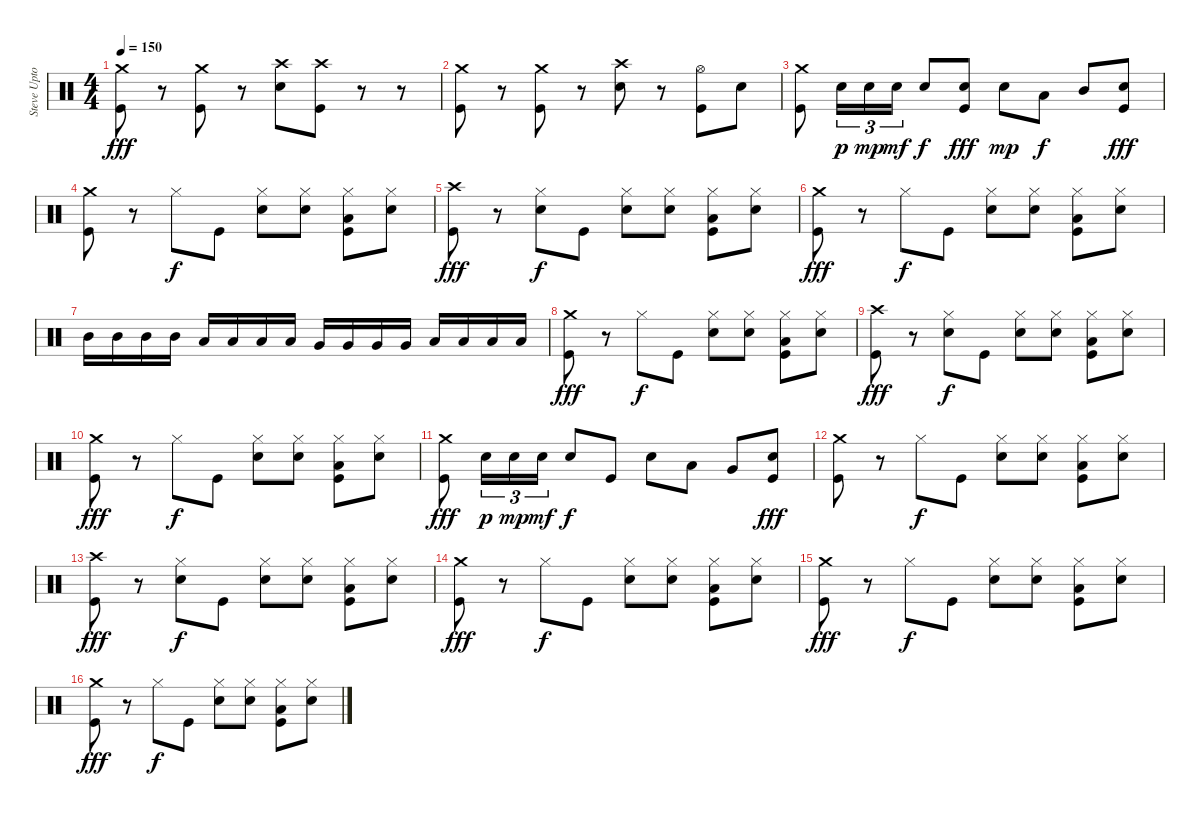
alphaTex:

\track ("Steve Upton (drums)" "Steve Upto") {instrument percussion}
\staff {score}
\articulation defaults
\ts (4 4)
\tempo 150
\clef neutral
\ks c
("Crash medium (hit)" "Kick (hit)").8{dy fff} r.8 ("Crash medium (hit)" "Kick (hit)").8 r.8 ("Crash high (hit)" "Electric Snare (hit)").8 ("Crash high (hit)" "Kick (hit)").8 r.8 r.8 |
("Crash medium (hit)" "Kick (hit)").8 r.8 ("Crash medium (hit)" "Kick (hit)").8 r.8 ("Crash high (hit)" "Electric Snare (hit)").8 r.8 ("Hi-Hat (open)" "Kick (hit)").8 "Electric Snare (hit)".8 |
("Crash medium (hit)" "Kick (hit)").8 "Electric Snare (hit)".16{tu (3 2) dy p} "Electric Snare (hit)".16{tu (3 2) dy mp} "Electric Snare (hit)".16{tu (3 2) dy mf} "Electric Snare (hit)".8{dy f} ("Electric Snare (hit)" "Kick (hit)").8{dy fff} "Electric Snare (hit)".8{dy mp} "Low Tom (hit)".8{dy f} "Mid Tom (hit)".8 ("Electric Snare (hit)" "Kick (hit)").8{dy fff} |
("Crash medium (hit)" "Kick (hit)").8 r.8 "Hi-Hat (closed)".8{dy f} "Kick (hit)".8 ("Hi-Hat (closed)" "Electric Snare (hit)").8 ("Hi-Hat (closed)" "Electric Snare (hit)").8 ("Hi-Hat (closed)" "Low Tom (hit)" "Kick (hit)").8 ("Hi-Hat (closed)" "Electric Snare (hit)").8 |
("Crash high (hit)" "Kick (hit)").8{dy fff} r.8 ("Hi-Hat (closed)" "Electric Snare (hit)").8{dy f} "Kick (hit)".8 ("Hi-Hat (closed)" "Electric Snare (hit)").8 ("Hi-Hat (closed)" "Electric Snare (hit)").8 ("Hi-Hat (closed)" "Low Tom (hit)" "Kick (hit)").8 ("Hi-Hat (closed)" "Electric Snare (hit)").8 |
("Crash medium (hit)" "Kick (hit)").8{dy fff} r.8 "Hi-Hat (closed)".8{dy f} "Kick (hit)".8 ("Hi-Hat (closed)" "Electric Snare (hit)").8 ("Hi-Hat (closed)" "Electric Snare (hit)").8 ("Hi-Hat (closed)" "Low Tom (hit)" "Kick (hit)").8 ("Hi-Hat (closed)" "Electric Snare (hit)").8 |
"Mid Tom (hit)".16 "Mid Tom (hit)".16 "Mid Tom (hit)".16 "Mid Tom (hit)".16 "Low Tom (hit)".16 "Low Tom (hit)".16 "Low Tom (hit)".16 "Low Tom (hit)".16 "Very Low Tom (hit)".16 "Very Low Tom (hit)".16 "Very Low Tom (hit)".16 "Very Low Tom (hit)".16 "Low Floor Tom (hit)".16 "Low Floor Tom (hit)".16 "Low Floor Tom (hit)".16 "Low Floor Tom (hit)".16 |
("Crash medium (hit)" "Kick (hit)").8{dy fff} r.8 "Hi-Hat (closed)".8{dy f} "Kick (hit)".8 ("Hi-Hat (closed)" "Electric Snare (hit)").8 ("Hi-Hat (closed)" "Electric Snare (hit)").8 ("Hi-Hat (closed)" "Low Tom (hit)" "Kick (hit)").8 ("Hi-Hat (closed)" "Electric Snare (hit)").8 |
("Crash high (hit)" "Kick (hit)").8{dy fff} r.8 ("Hi-Hat (closed)" "Electric Snare (hit)").8{dy f} "Kick (hit)".8 ("Hi-Hat (closed)" "Electric Snare (hit)").8 ("Hi-Hat (closed)" "Electric Snare (hit)").8 ("Hi-Hat (closed)" "Low Tom (hit)" "Kick (hit)").8 ("Hi-Hat (closed)" "Electric Snare (hit)").8 |
("Crash medium (hit)" "Kick (hit)").8{dy fff} r.8 "Hi-Hat (closed)".8{dy f} "Kick (hit)".8 ("Hi-Hat (closed)" "Electric Snare (hit)").8 ("Hi-Hat (closed)" "Electric Snare (hit)").8 ("Hi-Hat (closed)" "Low Tom (hit)" "Kick (hit)").8 ("Hi-Hat (closed)" "Electric Snare (hit)").8 |
("Crash medium (hit)" "Kick (hit)").8{dy fff} "Electric Snare (hit)".16{tu (3 2) dy p} "Electric Snare (hit)".16{tu (3 2) dy mp} "Electric Snare (hit)".16{tu (3 2) dy mf} "Electric Snare (hit)".8{dy f} "Kick (hit)".8 "Electric Snare (hit)".8 "Low Tom (hit)".8 "Very Low Tom (hit)".8 ("Electric Snare (hit)" "Kick (hit)").8{dy fff} |
("Crash medium (hit)" "Kick (hit)").8 r.8 "Hi-Hat (closed)".8{dy f} "Kick (hit)".8 ("Hi-Hat (closed)" "Electric Snare (hit)").8 ("Hi-Hat (closed)" "Electric Snare (hit)").8 ("Hi-Hat (closed)" "Low Tom (hit)" "Kick (hit)").8 ("Hi-Hat (closed)" "Electric Snare (hit)").8 |
("Crash high (hit)" "Kick (hit)").8{dy fff} r.8 ("Hi-Hat (closed)" "Electric Snare (hit)").8{dy f} "Kick (hit)".8 ("Hi-Hat (closed)" "Electric Snare (hit)").8 ("Hi-Hat (closed)" "Electric Snare (hit)").8 ("Hi-Hat (closed)" "Low Tom (hit)" "Kick (hit)").8 ("Hi-Hat (closed)" "Electric Snare (hit)").8 |
("Crash medium (hit)" "Kick (hit)").8{dy fff} r.8 "Hi-Hat (closed)".8{dy f} "Kick (hit)".8 ("Hi-Hat (closed)" "Electric Snare (hit)").8 ("Hi-Hat (closed)" "Electric Snare (hit)").8 ("Hi-Hat (closed)" "Low Tom (hit)" "Kick (hit)").8 ("Hi-Hat (closed)" "Electric Snare (hit)").8 |
("Crash medium (hit)" "Kick (hit)").8{dy fff} r.8 "Hi-Hat (closed)".8{dy f} "Kick (hit)".8 ("Hi-Hat (closed)" "Electric Snare (hit)").8 ("Hi-Hat (closed)" "Electric Snare (hit)").8 ("Hi-Hat (closed)" "Low Tom (hit)" "Kick (hit)").8 ("Hi-Hat (closed)" "Electric Snare (hit)").8 |
("Crash medium (hit)" "Kick (hit)").8{dy fff} r.8 "Hi-Hat (closed)".8{dy f} "Kick (hit)".8 ("Hi-Hat (closed)" "Electric Snare (hit)").8 ("Hi-Hat (closed)" "Electric Snare (hit)").8 ("Hi-Hat (closed)" "Low Tom (hit)" "Kick (hit)").8 ("Hi-Hat (closed)" "Electric Snare (hit)").8
